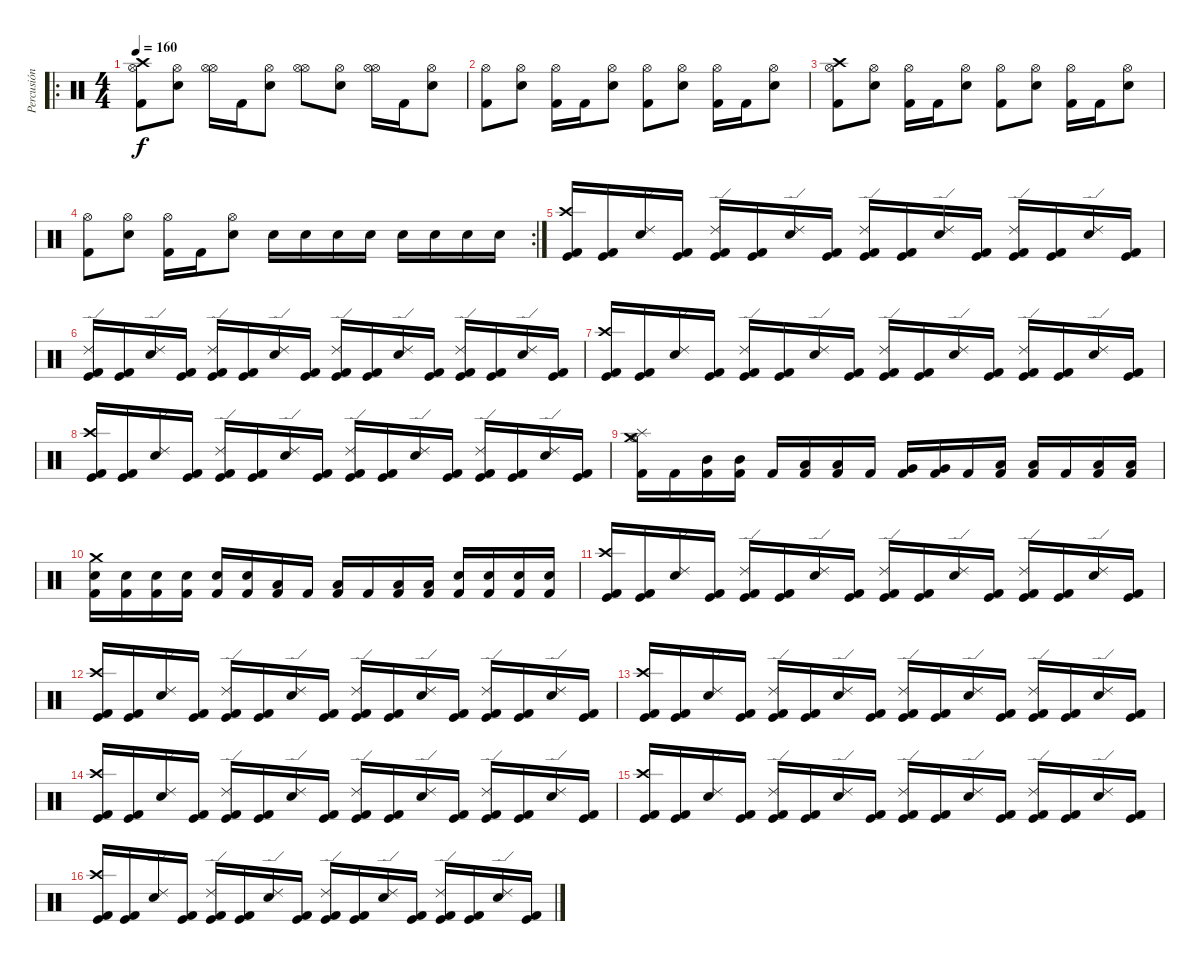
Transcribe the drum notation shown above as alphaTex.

\track ("Percusión" "Percusión") {instrument percussion}
\staff {score}
\articulation defaults
\ro
\ts (4 4)
\tempo 160
\clef neutral
\ks c
("Hi-Hat (open)" "Kick (hit) 2" "Crash high (hit)").8{dy f} ("Hi-Hat (open)" "Electric Snare (hit)").8 ("Hi-Hat (open)" "Hi-Hat (open)").16 "Kick (hit) 2".16 ("Hi-Hat (open)" "Electric Snare (hit)").8 ("Hi-Hat (open)" "Hi-Hat (open)").8 ("Hi-Hat (open)" "Electric Snare (hit)").8 ("Hi-Hat (open)" "Hi-Hat (open)").16 "Kick (hit) 2".16 ("Hi-Hat (open)" "Electric Snare (hit)").8 |
("Hi-Hat (open)" "Kick (hit) 2").8 ("Hi-Hat (open)" "Electric Snare (hit)").8 ("Hi-Hat (open)" "Kick (hit) 2").16 "Kick (hit) 2".16 ("Hi-Hat (open)" "Electric Snare (hit)").8 ("Hi-Hat (open)" "Kick (hit) 2").8 ("Hi-Hat (open)" "Electric Snare (hit)").8 ("Hi-Hat (open)" "Kick (hit) 2").16 "Kick (hit) 2".16 ("Hi-Hat (open)" "Electric Snare (hit)").8 |
("Hi-Hat (open)" "Kick (hit) 2" "Crash high (hit)").8 ("Hi-Hat (open)" "Electric Snare (hit)").8 ("Hi-Hat (open)" "Kick (hit) 2").16 "Kick (hit) 2".16 ("Hi-Hat (open)" "Electric Snare (hit)").8 ("Hi-Hat (open)" "Kick (hit) 2").8 ("Hi-Hat (open)" "Electric Snare (hit)").8 ("Hi-Hat (open)" "Kick (hit) 2").16 "Kick (hit) 2".16 ("Hi-Hat (open)" "Electric Snare (hit)").8 |
\rc 2
("Hi-Hat (open)" "Kick (hit) 2").8 ("Hi-Hat (open)" "Electric Snare (hit)").8 ("Hi-Hat (open)" "Kick (hit) 2").16 "Kick (hit) 2".16 ("Hi-Hat (open)" "Electric Snare (hit)").8 "Electric Snare (hit)".16 "Electric Snare (hit)".16 "Electric Snare (hit)".16 "Electric Snare (hit)".16 "Electric Snare (hit)".16 "Electric Snare (hit)".16 "Electric Snare (hit)".16 "Electric Snare (hit)".16 |
("Kick (hit)" "Kick (hit) 2" "Crash high (hit)").16 ("Kick (hit)" "Kick (hit) 2").16 ("Electric Snare (hit)" "Ride (edge) 2").16 ("Kick (hit)" "Kick (hit) 2").16 ("Kick (hit)" "Kick (hit) 2" "Ride (edge) 2").16 ("Kick (hit)" "Kick (hit) 2").16 ("Electric Snare (hit)" "Ride (edge) 2").16 ("Kick (hit)" "Kick (hit) 2").16 ("Kick (hit)" "Kick (hit) 2" "Ride (edge) 2").16 ("Kick (hit)" "Kick (hit) 2").16 ("Electric Snare (hit)" "Ride (edge) 2").16 ("Kick (hit)" "Kick (hit) 2").16 ("Kick (hit)" "Kick (hit) 2" "Ride (edge) 2").16 ("Kick (hit)" "Kick (hit) 2").16 ("Electric Snare (hit)" "Ride (edge) 2").16 ("Kick (hit)" "Kick (hit) 2").16 |
("Kick (hit)" "Kick (hit) 2" "Ride (edge) 2").16 ("Kick (hit)" "Kick (hit) 2").16 ("Electric Snare (hit)" "Ride (edge) 2").16 ("Kick (hit)" "Kick (hit) 2").16 ("Kick (hit)" "Kick (hit) 2" "Ride (edge) 2").16 ("Kick (hit)" "Kick (hit) 2").16 ("Electric Snare (hit)" "Ride (edge) 2").16 ("Kick (hit)" "Kick (hit) 2").16 ("Kick (hit)" "Kick (hit) 2" "Ride (edge) 2").16 ("Kick (hit)" "Kick (hit) 2").16 ("Electric Snare (hit)" "Ride (edge) 2").16 ("Kick (hit)" "Kick (hit) 2").16 ("Kick (hit)" "Kick (hit) 2" "Ride (edge) 2").16 ("Kick (hit)" "Kick (hit) 2").16 ("Electric Snare (hit)" "Ride (edge) 2").16 ("Kick (hit)" "Kick (hit) 2").16 |
("Kick (hit)" "Kick (hit) 2" "Crash high (hit)").16 ("Kick (hit)" "Kick (hit) 2").16 ("Electric Snare (hit)" "Ride (edge) 2").16 ("Kick (hit)" "Kick (hit) 2").16 ("Kick (hit)" "Kick (hit) 2" "Ride (edge) 2").16 ("Kick (hit)" "Kick (hit) 2").16 ("Electric Snare (hit)" "Ride (edge) 2").16 ("Kick (hit)" "Kick (hit) 2").16 ("Kick (hit)" "Kick (hit) 2" "Ride (edge) 2").16 ("Kick (hit)" "Kick (hit) 2").16 ("Electric Snare (hit)" "Ride (edge) 2").16 ("Kick (hit)" "Kick (hit) 2").16 ("Kick (hit)" "Kick (hit) 2" "Ride (edge) 2").16 ("Kick (hit)" "Kick (hit) 2").16 ("Electric Snare (hit)" "Ride (edge) 2").16 ("Kick (hit)" "Kick (hit) 2").16 |
("Kick (hit)" "Kick (hit) 2" "Crash high (hit)").16 ("Kick (hit)" "Kick (hit) 2").16 ("Electric Snare (hit)" "Ride (edge) 2").16 ("Kick (hit)" "Kick (hit) 2").16 ("Kick (hit)" "Kick (hit) 2" "Ride (edge) 2").16 ("Kick (hit)" "Kick (hit) 2").16 ("Electric Snare (hit)" "Ride (edge) 2").16 ("Kick (hit)" "Kick (hit) 2").16 ("Kick (hit)" "Kick (hit) 2" "Ride (edge) 2").16 ("Kick (hit)" "Kick (hit) 2").16 ("Electric Snare (hit)" "Ride (edge) 2").16 ("Kick (hit)" "Kick (hit) 2").16 ("Kick (hit)" "Kick (hit) 2" "Ride (edge) 2").16 ("Kick (hit)" "Kick (hit) 2").16 ("Electric Snare (hit)" "Ride (edge) 2").16 ("Kick (hit)" "Kick (hit) 2").16 |
("Splash (hit)" "Hi-Hat (open)" "Crash medium (hit)" "Kick (hit) 2").16 "Kick (hit) 2".16 ("Mid Tom (hit)" "Kick (hit) 2").16 ("Mid Tom (hit)" "Kick (hit) 2").16 "Kick (hit) 2".16 ("Low Tom (hit)" "Kick (hit) 2").16 ("Low Tom (hit)" "Kick (hit) 2").16 "Kick (hit) 2".16 ("Very Low Tom (hit)" "Kick (hit) 2").16 ("Very Low Tom (hit)" "Kick (hit) 2").16 "Kick (hit) 2".16 ("Low Floor Tom (hit)" "Kick (hit) 2").16 ("Low Floor Tom (hit)" "Kick (hit) 2").16 "Kick (hit) 2".16 ("Low Floor Tom (hit)" "Kick (hit) 2").16 ("Low Floor Tom (hit)" "Kick (hit) 2").16 |
("Kick (hit) 2" "Electric Snare (hit)" "Crash medium (hit)").16 ("Kick (hit) 2" "Electric Snare (hit)").16 ("Kick (hit) 2" "Electric Snare (hit)").16 ("Kick (hit) 2" "Electric Snare (hit)").16 ("Kick (hit) 2" "Electric Snare (hit)").16 ("Kick (hit) 2" "Electric Snare (hit)").16 ("Kick (hit) 2" "Low Tom (hit)").16 "Kick (hit) 2".16 ("Kick (hit) 2" "Low Tom (hit)").16 "Kick (hit) 2".16 ("Kick (hit) 2" "Low Tom (hit)").16 ("Kick (hit) 2" "Low Tom (hit)").16 ("Kick (hit) 2" "Electric Snare (hit)").16 ("Kick (hit) 2" "Electric Snare (hit)").16 ("Kick (hit) 2" "Electric Snare (hit)").16 ("Kick (hit) 2" "Electric Snare (hit)").16 |
("Kick (hit)" "Kick (hit) 2" "Crash high (hit)").16 ("Kick (hit)" "Kick (hit) 2").16 ("Electric Snare (hit)" "Ride (edge) 2").16 ("Kick (hit)" "Kick (hit) 2").16 ("Kick (hit)" "Kick (hit) 2" "Ride (edge) 2").16 ("Kick (hit)" "Kick (hit) 2").16 ("Electric Snare (hit)" "Ride (edge) 2").16 ("Kick (hit)" "Kick (hit) 2").16 ("Kick (hit)" "Kick (hit) 2" "Ride (edge) 2").16 ("Kick (hit)" "Kick (hit) 2").16 ("Electric Snare (hit)" "Ride (edge) 2").16 ("Kick (hit)" "Kick (hit) 2").16 ("Kick (hit)" "Kick (hit) 2" "Ride (edge) 2").16 ("Kick (hit)" "Kick (hit) 2").16 ("Electric Snare (hit)" "Ride (edge) 2").16 ("Kick (hit)" "Kick (hit) 2").16 |
("Kick (hit)" "Kick (hit) 2" "Crash high (hit)").16 ("Kick (hit)" "Kick (hit) 2").16 ("Electric Snare (hit)" "Ride (edge) 2").16 ("Kick (hit)" "Kick (hit) 2").16 ("Kick (hit)" "Kick (hit) 2" "Ride (edge) 2").16 ("Kick (hit)" "Kick (hit) 2").16 ("Electric Snare (hit)" "Ride (edge) 2").16 ("Kick (hit)" "Kick (hit) 2").16 ("Kick (hit)" "Kick (hit) 2" "Ride (edge) 2").16 ("Kick (hit)" "Kick (hit) 2").16 ("Electric Snare (hit)" "Ride (edge) 2").16 ("Kick (hit)" "Kick (hit) 2").16 ("Kick (hit)" "Kick (hit) 2" "Ride (edge) 2").16 ("Kick (hit)" "Kick (hit) 2").16 ("Electric Snare (hit)" "Ride (edge) 2").16 ("Kick (hit)" "Kick (hit) 2").16 |
("Kick (hit)" "Kick (hit) 2" "Crash high (hit)").16 ("Kick (hit)" "Kick (hit) 2").16 ("Electric Snare (hit)" "Ride (edge) 2").16 ("Kick (hit)" "Kick (hit) 2").16 ("Kick (hit)" "Kick (hit) 2" "Ride (edge) 2").16 ("Kick (hit)" "Kick (hit) 2").16 ("Electric Snare (hit)" "Ride (edge) 2").16 ("Kick (hit)" "Kick (hit) 2").16 ("Kick (hit)" "Kick (hit) 2" "Ride (edge) 2").16 ("Kick (hit)" "Kick (hit) 2").16 ("Electric Snare (hit)" "Ride (edge) 2").16 ("Kick (hit)" "Kick (hit) 2").16 ("Kick (hit)" "Kick (hit) 2" "Ride (edge) 2").16 ("Kick (hit)" "Kick (hit) 2").16 ("Electric Snare (hit)" "Ride (edge) 2").16 ("Kick (hit)" "Kick (hit) 2").16 |
("Kick (hit)" "Kick (hit) 2" "Crash high (hit)").16 ("Kick (hit)" "Kick (hit) 2").16 ("Electric Snare (hit)" "Ride (edge) 2").16 ("Kick (hit)" "Kick (hit) 2").16 ("Kick (hit)" "Kick (hit) 2" "Ride (edge) 2").16 ("Kick (hit)" "Kick (hit) 2").16 ("Electric Snare (hit)" "Ride (edge) 2").16 ("Kick (hit)" "Kick (hit) 2").16 ("Kick (hit)" "Kick (hit) 2" "Ride (edge) 2").16 ("Kick (hit)" "Kick (hit) 2").16 ("Electric Snare (hit)" "Ride (edge) 2").16 ("Kick (hit)" "Kick (hit) 2").16 ("Kick (hit)" "Kick (hit) 2" "Ride (edge) 2").16 ("Kick (hit)" "Kick (hit) 2").16 ("Electric Snare (hit)" "Ride (edge) 2").16 ("Kick (hit)" "Kick (hit) 2").16 |
("Kick (hit)" "Kick (hit) 2" "Crash high (hit)").16 ("Kick (hit)" "Kick (hit) 2").16 ("Electric Snare (hit)" "Ride (edge) 2").16 ("Kick (hit)" "Kick (hit) 2").16 ("Kick (hit)" "Kick (hit) 2" "Ride (edge) 2").16 ("Kick (hit)" "Kick (hit) 2").16 ("Electric Snare (hit)" "Ride (edge) 2").16 ("Kick (hit)" "Kick (hit) 2").16 ("Kick (hit)" "Kick (hit) 2" "Ride (edge) 2").16 ("Kick (hit)" "Kick (hit) 2").16 ("Electric Snare (hit)" "Ride (edge) 2").16 ("Kick (hit)" "Kick (hit) 2").16 ("Kick (hit)" "Kick (hit) 2" "Ride (edge) 2").16 ("Kick (hit)" "Kick (hit) 2").16 ("Electric Snare (hit)" "Ride (edge) 2").16 ("Kick (hit)" "Kick (hit) 2").16 |
("Kick (hit)" "Kick (hit) 2" "Crash high (hit)").16 ("Kick (hit)" "Kick (hit) 2").16 ("Electric Snare (hit)" "Ride (edge) 2").16 ("Kick (hit)" "Kick (hit) 2").16 ("Kick (hit)" "Kick (hit) 2" "Ride (edge) 2").16 ("Kick (hit)" "Kick (hit) 2").16 ("Electric Snare (hit)" "Ride (edge) 2").16 ("Kick (hit)" "Kick (hit) 2").16 ("Kick (hit)" "Kick (hit) 2" "Ride (edge) 2").16 ("Kick (hit)" "Kick (hit) 2").16 ("Electric Snare (hit)" "Ride (edge) 2").16 ("Kick (hit)" "Kick (hit) 2").16 ("Kick (hit)" "Kick (hit) 2" "Ride (edge) 2").16 ("Kick (hit)" "Kick (hit) 2").16 ("Electric Snare (hit)" "Ride (edge) 2").16 ("Kick (hit)" "Kick (hit) 2").16
